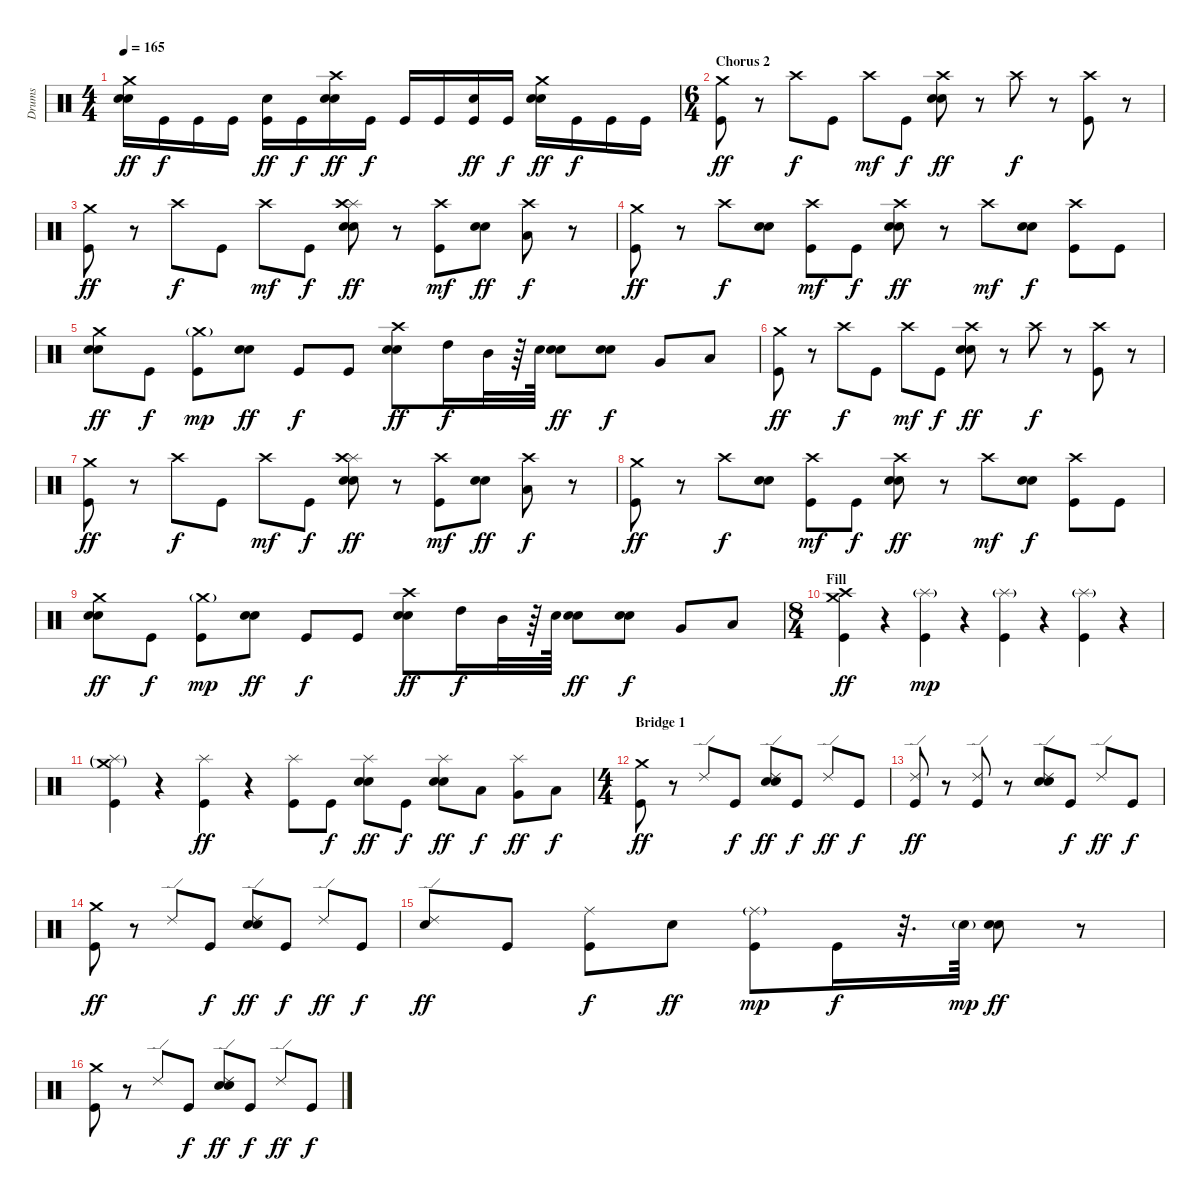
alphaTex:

\track ("Drums" "Drums") {instrument percussion}
\staff {score}
\articulation defaults
\ts (4 4)
\tempo 165
\clef neutral
\ks c
("Electric Snare (hit)" "Electric Snare (hit)" "Crash medium (hit)").16{dy ff} "Kick (hit)".16{dy f} "Kick (hit)".16 "Kick (hit)".16 ("Kick (hit)" "Electric Snare (hit)").16{dy ff} "Kick (hit)".16{dy f} ("Electric Snare (hit)" "Electric Snare (hit)" "Crash high (hit)").16{dy ff} "Kick (hit)".16{dy f} "Kick (hit)".16 "Kick (hit)".16 ("Kick (hit)" "Electric Snare (hit)").16{dy ff} "Kick (hit)".16{dy f} ("Electric Snare (hit)" "Electric Snare (hit)" "Crash medium (hit)").16{dy ff} "Kick (hit)".16{dy f} "Kick (hit)".16 "Kick (hit)".16 |
\ts (6 4)
\section ("" "Chorus 2")
("Kick (hit)" "Crash medium (hit)").8{dy ff} r.8 "Crash high (hit)".8{dy f} "Kick (hit)".8 "Crash high (hit)".8{dy mf} "Kick (hit)".8{dy f} ("Electric Snare (hit)" "Electric Snare (hit)" "Crash high (hit)").8{dy ff} r.8 "Crash high (hit)".8{dy f} r.8 ("Kick (hit)" "Crash high (hit)").8 r.8 |
("Kick (hit)" "Crash medium (hit)").8{dy ff} r.8 "Crash high (hit)".8{dy f} "Kick (hit)".8 "Crash high (hit)".8{dy mf} "Kick (hit)".8{dy f} ("Electric Snare (hit)" "Electric Snare (hit)" "Splash (hit)" "Crash high (hit)").8{dy ff} r.8 ("Kick (hit)" "Crash high (hit)").8{dy mf} ("Electric Snare (hit)" "Electric Snare (hit)").8{dy ff} ("Low Floor Tom (hit)" "Crash high (hit)").8{dy f} r.8 |
("Kick (hit)" "Crash medium (hit)").8{dy ff} r.8 "Crash high (hit)".8{dy f} ("Electric Snare (hit)" "Electric Snare (hit)").8 ("Kick (hit)" "Crash high (hit)").8{dy mf} "Kick (hit)".8{dy f} ("Electric Snare (hit)" "Electric Snare (hit)" "Crash high (hit)").8{dy ff} r.8 "Crash high (hit)".8{dy mf} ("Electric Snare (hit)" "Electric Snare (hit)").8{dy f} ("Kick (hit)" "Crash high (hit)").8 "Kick (hit)".8 |
("Electric Snare (hit)" "Electric Snare (hit)" "Crash medium (hit)").8{dy ff} "Kick (hit)".8{dy f} ("Kick (hit)" "Crash medium (hit)"{g}).8{dy mp} ("Electric Snare (hit)" "Electric Snare (hit)").8{dy ff} "Kick (hit)".8{dy f} "Kick (hit)".8 ("Electric Snare (hit)" "Electric Snare (hit)" "Crash high (hit)").8{dy ff} "High Tom (hit)".16{dy f} "Mid Tom (hit)".32 r.64 "Electric Snare (hit)".64 ("Electric Snare (hit)" "Electric Snare (hit)").8{dy ff} ("Electric Snare (hit)" "Electric Snare (hit)").8{dy f} "Very Low Tom (hit)".8 "Low Floor Tom (hit)".8 |
("Kick (hit)" "Crash medium (hit)").8{dy ff} r.8 "Crash high (hit)".8{dy f} "Kick (hit)".8 "Crash high (hit)".8{dy mf} "Kick (hit)".8{dy f} ("Electric Snare (hit)" "Electric Snare (hit)" "Crash high (hit)").8{dy ff} r.8 "Crash high (hit)".8{dy f} r.8 ("Kick (hit)" "Crash high (hit)").8 r.8 |
("Kick (hit)" "Crash medium (hit)").8{dy ff} r.8 "Crash high (hit)".8{dy f} "Kick (hit)".8 "Crash high (hit)".8{dy mf} "Kick (hit)".8{dy f} ("Electric Snare (hit)" "Electric Snare (hit)" "Splash (hit)" "Crash high (hit)").8{dy ff} r.8 ("Kick (hit)" "Crash high (hit)").8{dy mf} ("Electric Snare (hit)" "Electric Snare (hit)").8{dy ff} ("Low Floor Tom (hit)" "Crash high (hit)").8{dy f} r.8 |
("Kick (hit)" "Crash medium (hit)").8{dy ff} r.8 "Crash high (hit)".8{dy f} ("Electric Snare (hit)" "Electric Snare (hit)").8 ("Kick (hit)" "Crash high (hit)").8{dy mf} "Kick (hit)".8{dy f} ("Electric Snare (hit)" "Electric Snare (hit)" "Crash high (hit)").8{dy ff} r.8 "Crash high (hit)".8{dy mf} ("Electric Snare (hit)" "Electric Snare (hit)").8{dy f} ("Kick (hit)" "Crash high (hit)").8 "Kick (hit)".8 |
("Electric Snare (hit)" "Electric Snare (hit)" "Crash medium (hit)").8{dy ff} "Kick (hit)".8{dy f} ("Kick (hit)" "Crash medium (hit)"{g}).8{dy mp} ("Electric Snare (hit)" "Electric Snare (hit)").8{dy ff} "Kick (hit)".8{dy f} "Kick (hit)".8 ("Electric Snare (hit)" "Electric Snare (hit)" "Crash high (hit)").8{dy ff} "High Tom (hit)".16{dy f} "Mid Tom (hit)".32 r.64 "Electric Snare (hit)".64 ("Electric Snare (hit)" "Electric Snare (hit)").8{dy ff} ("Electric Snare (hit)" "Electric Snare (hit)").8{dy f} "Very Low Tom (hit)".8 "Low Floor Tom (hit)".8 |
\ts (8 4)
\section ("" "Fill")
("Kick (hit)" "Crash high (hit)" "Crash medium (hit)").4{dy ff} r.4 ("Kick (hit)" "Splash (hit)"{g}).4{dy mp} r.4 ("Kick (hit)" "Splash (hit)"{g}).4 r.4 ("Kick (hit)" "Splash (hit)"{g}).4 r.4 |
("Kick (hit)" "Splash (hit)"{g} "Crash medium (hit)"{g}).4 r.4 ("Kick (hit)" "Splash (hit)").4{dy ff} r.4 ("Kick (hit)" "Splash (hit)").8 "Kick (hit)".8{dy f} ("Electric Snare (hit)" "Electric Snare (hit)" "Splash (hit)").8{dy ff} "Kick (hit)".8{dy f} ("Electric Snare (hit)" "Electric Snare (hit)" "Splash (hit)").8{dy ff} "Low Tom (hit)".8{dy f} ("Very Low Tom (hit)" "Splash (hit)").8{dy ff} "Low Floor Tom (hit)".8{dy f} |
\ts (4 4)
\section ("" "Bridge 1")
("Kick (hit)" "Crash medium (hit)").8{dy ff} r.8 "Ride (edge) 2".8 "Kick (hit)".8{dy f} ("Electric Snare (hit)" "Electric Snare (hit)" "Ride (edge) 2").8{dy ff} "Kick (hit)".8{dy f} "Ride (edge) 2".8{dy ff} "Kick (hit)".8{dy f} |
("Kick (hit)" "Ride (edge) 2").8{dy ff} r.8 ("Kick (hit)" "Ride (edge) 2").8 r.8 ("Electric Snare (hit)" "Electric Snare (hit)" "Ride (edge) 2").8 "Kick (hit)".8{dy f} "Ride (edge) 2".8{dy ff} "Kick (hit)".8{dy f} |
("Kick (hit)" "Crash medium (hit)").8{dy ff} r.8 "Ride (edge) 2".8 "Kick (hit)".8{dy f} ("Electric Snare (hit)" "Electric Snare (hit)" "Ride (edge) 2").8{dy ff} "Kick (hit)".8{dy f} "Ride (edge) 2".8{dy ff} "Kick (hit)".8{dy f} |
("Electric Snare (hit)" "Ride (edge) 2").8{dy ff} "Kick (hit)".8 ("Kick (hit)" "Ride (middle)").8{dy f} "Electric Snare (hit)".8{dy ff} ("Kick (hit)" "Ride (middle)"{g}).8{dy mp} "Kick (hit)".16{dy f} r.32{d} "Electric Snare (hit)"{g}.64{dy mp} ("Electric Snare (hit)" "Electric Snare (hit)").8{dy ff} r.8 |
("Kick (hit)" "Crash medium (hit)").8 r.8 "Ride (edge) 2".8 "Kick (hit)".8{dy f} ("Electric Snare (hit)" "Electric Snare (hit)" "Ride (edge) 2").8{dy ff} "Kick (hit)".8{dy f} "Ride (edge) 2".8{dy ff} "Kick (hit)".8{dy f}
